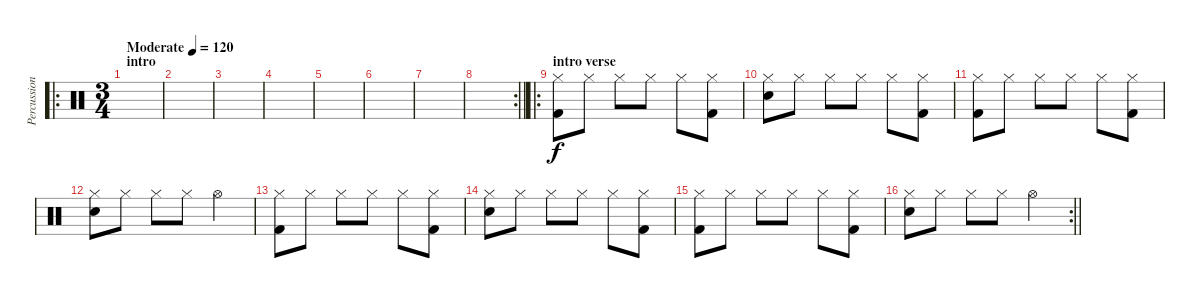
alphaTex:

\track ("Percussion" "Percussion") {instrument percussion}
\staff {score}
\articulation defaults
\ro
\ts (3 4)
\section ("" "intro")
\tempo (120 "Moderate")
\clef neutral
\ks c
|
|
|
|
|
|
|
\rc 2
\barLineRight lightlight
|
\ro
\section ("" "intro verse")
("Hi-Hat (closed)" "Kick (hit) 2").8 "Hi-Hat (closed)".8 "Hi-Hat (closed)".8 "Hi-Hat (closed)".8 "Hi-Hat (closed)".8 ("Hi-Hat (closed)" "Kick (hit) 2").8 |
("Hi-Hat (closed)" "Snare (hit) 2").8 "Hi-Hat (closed)".8 "Hi-Hat (closed)".8 "Hi-Hat (closed)".8 "Hi-Hat (closed)".8 ("Hi-Hat (closed)" "Kick (hit) 2").8 |
("Hi-Hat (closed)" "Kick (hit) 2").8 "Hi-Hat (closed)".8 "Hi-Hat (closed)".8 "Hi-Hat (closed)".8 "Hi-Hat (closed)".8 ("Hi-Hat (closed)" "Kick (hit) 2").8 |
("Hi-Hat (closed)" "Snare (hit) 2").8 "Hi-Hat (closed)".8 "Hi-Hat (closed)".8 "Hi-Hat (closed)".8 "Hi-Hat (open)".4 |
("Hi-Hat (closed)" "Kick (hit) 2").8 "Hi-Hat (closed)".8 "Hi-Hat (closed)".8 "Hi-Hat (closed)".8 "Hi-Hat (closed)".8 ("Hi-Hat (closed)" "Kick (hit) 2").8 |
("Hi-Hat (closed)" "Snare (hit) 2").8 "Hi-Hat (closed)".8 "Hi-Hat (closed)".8 "Hi-Hat (closed)".8 "Hi-Hat (closed)".8 ("Hi-Hat (closed)" "Kick (hit) 2").8 |
("Hi-Hat (closed)" "Kick (hit) 2").8 "Hi-Hat (closed)".8 "Hi-Hat (closed)".8 "Hi-Hat (closed)".8 "Hi-Hat (closed)".8 ("Hi-Hat (closed)" "Kick (hit) 2").8 |
\rc 2
\barLineRight lightlight
("Hi-Hat (closed)" "Snare (hit) 2").8 "Hi-Hat (closed)".8 "Hi-Hat (closed)".8 "Hi-Hat (closed)".8 "Hi-Hat (open)".4
